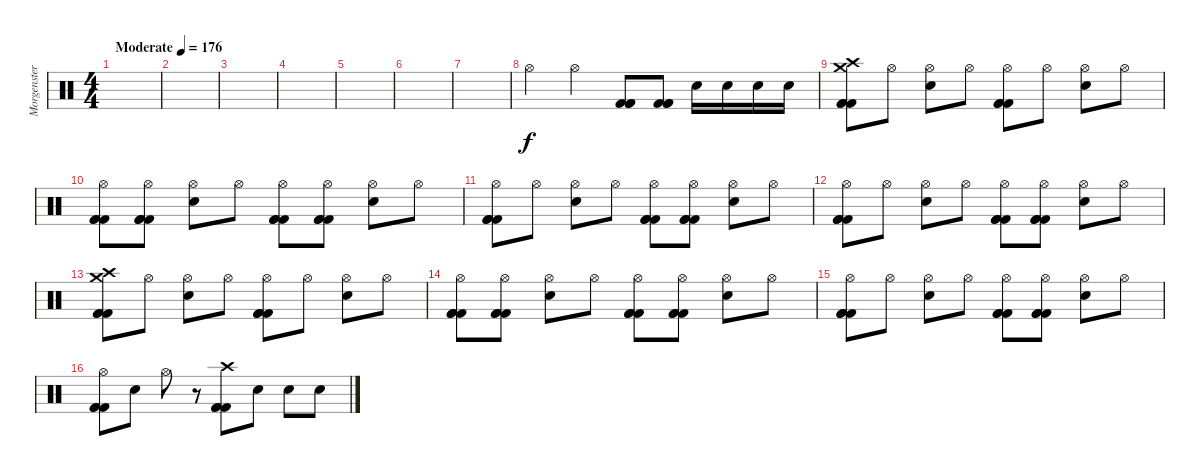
\track ("Morgenstern (Schlagzeug)" "Morgenster") {instrument percussion}
\staff {score}
\articulation defaults
\ts (4 4)
\tempo (176 "Moderate")
\clef neutral
\ks c
|
|
|
|
|
|
|
"Hi-Hat (open)".4 "Hi-Hat (open)".4 ("Kick (hit) 2" "Kick (hit) 2" "Kick (hit) 2").8 ("Kick (hit) 2" "Kick (hit) 2" "Kick (hit) 2").8 "Snare (hit) 2".16 "Snare (hit) 2".16 "Snare (hit) 2".16 "Snare (hit) 2".16 |
("Crash high (hit)" "Crash medium (hit)" "Kick (hit) 2" "Kick (hit) 2" "Kick (hit) 2").8 "Hi-Hat (open)".8 ("Hi-Hat (open)" "Snare (hit) 2").8 "Hi-Hat (open)".8 ("Hi-Hat (open)" "Kick (hit) 2" "Kick (hit) 2" "Kick (hit) 2").8 "Hi-Hat (open)".8 ("Hi-Hat (open)" "Snare (hit) 2").8 "Hi-Hat (open)".8 |
("Hi-Hat (open)" "Kick (hit) 2" "Kick (hit) 2" "Kick (hit) 2").8 ("Hi-Hat (open)" "Kick (hit) 2" "Kick (hit) 2" "Kick (hit) 2").8 ("Hi-Hat (open)" "Snare (hit) 2").8 "Hi-Hat (open)".8 ("Hi-Hat (open)" "Kick (hit) 2" "Kick (hit) 2" "Kick (hit) 2").8 ("Hi-Hat (open)" "Kick (hit) 2" "Kick (hit) 2" "Kick (hit) 2").8 ("Hi-Hat (open)" "Snare (hit) 2").8 "Hi-Hat (open)".8 |
("Hi-Hat (open)" "Kick (hit) 2" "Kick (hit) 2" "Kick (hit) 2").8 "Hi-Hat (open)".8 ("Hi-Hat (open)" "Snare (hit) 2").8 "Hi-Hat (open)".8 ("Hi-Hat (open)" "Kick (hit) 2" "Kick (hit) 2" "Kick (hit) 2").8 ("Hi-Hat (open)" "Kick (hit) 2" "Kick (hit) 2" "Kick (hit) 2").8 ("Hi-Hat (open)" "Snare (hit) 2").8 "Hi-Hat (open)".8 |
("Hi-Hat (open)" "Kick (hit) 2" "Kick (hit) 2" "Kick (hit) 2").8 "Hi-Hat (open)".8 ("Hi-Hat (open)" "Snare (hit) 2").8 "Hi-Hat (open)".8 ("Hi-Hat (open)" "Kick (hit) 2" "Kick (hit) 2" "Kick (hit) 2").8 ("Hi-Hat (open)" "Kick (hit) 2" "Kick (hit) 2" "Kick (hit) 2").8 ("Hi-Hat (open)" "Snare (hit) 2").8 "Hi-Hat (open)".8 |
("Crash high (hit)" "Crash medium (hit)" "Kick (hit) 2" "Kick (hit) 2" "Kick (hit) 2").8 "Hi-Hat (open)".8 ("Hi-Hat (open)" "Snare (hit) 2").8 "Hi-Hat (open)".8 ("Hi-Hat (open)" "Kick (hit) 2" "Kick (hit) 2" "Kick (hit) 2").8 "Hi-Hat (open)".8 ("Hi-Hat (open)" "Snare (hit) 2").8 "Hi-Hat (open)".8 |
("Hi-Hat (open)" "Kick (hit) 2" "Kick (hit) 2" "Kick (hit) 2").8 ("Hi-Hat (open)" "Kick (hit) 2" "Kick (hit) 2" "Kick (hit) 2").8 ("Hi-Hat (open)" "Snare (hit) 2").8 "Hi-Hat (open)".8 ("Hi-Hat (open)" "Kick (hit) 2" "Kick (hit) 2" "Kick (hit) 2").8 ("Hi-Hat (open)" "Kick (hit) 2" "Kick (hit) 2" "Kick (hit) 2").8 ("Hi-Hat (open)" "Snare (hit) 2").8 "Hi-Hat (open)".8 |
("Hi-Hat (open)" "Kick (hit) 2" "Kick (hit) 2" "Kick (hit) 2").8 "Hi-Hat (open)".8 ("Hi-Hat (open)" "Snare (hit) 2").8 "Hi-Hat (open)".8 ("Hi-Hat (open)" "Kick (hit) 2" "Kick (hit) 2" "Kick (hit) 2").8 ("Hi-Hat (open)" "Kick (hit) 2" "Kick (hit) 2" "Kick (hit) 2").8 ("Hi-Hat (open)" "Snare (hit) 2").8 "Hi-Hat (open)".8 |
("Hi-Hat (open)" "Kick (hit) 2" "Kick (hit) 2" "Kick (hit) 2").8 "Snare (hit) 2".8 "Hi-Hat (open)".8 r.8 ("Crash high (hit)" "Kick (hit) 2" "Kick (hit) 2" "Kick (hit) 2").8 "Snare (hit) 2".8 "Snare (hit) 2".8 "Snare (hit) 2".8
